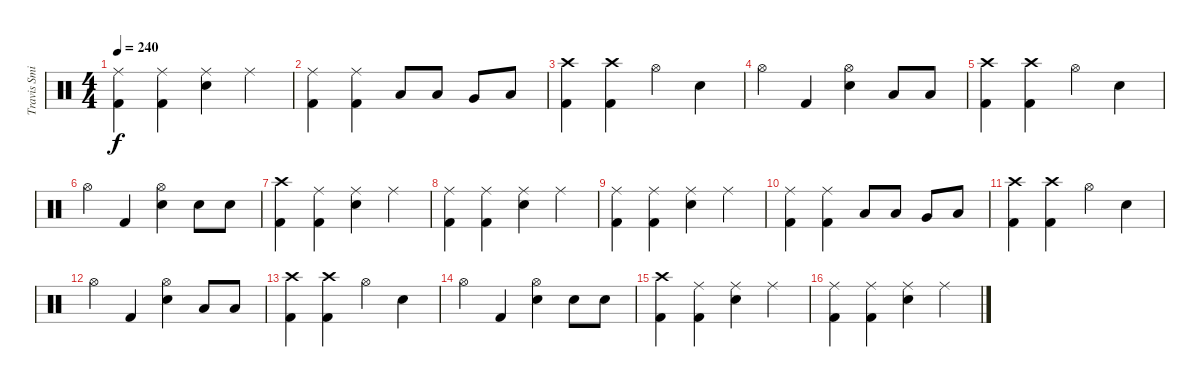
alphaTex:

\track ("Travis Smith" "Travis Smi") {instrument percussion}
\staff {score}
\articulation defaults
\ts (4 4)
\tempo 240
\clef neutral
\ks c
("Kick (hit) 2" "Ride (middle)").4{dy f} ("Kick (hit) 2" "Ride (middle)").4 ("Snare (hit) 2" "Ride (middle)").4 "Ride (middle)".4 |
("Kick (hit) 2" "Ride (middle)").4 ("Kick (hit) 2" "Ride (middle)").4 "Low Tom (hit)".8 "Low Tom (hit)".8 "Very Low Tom (hit)".8 "Low Floor Tom (hit)".8 |
("Kick (hit) 2" "Crash high (hit)").4 ("Kick (hit) 2" "Crash high (hit)").4 "Hi-Hat (open)".4 "Snare (hit) 2".4 |
"Hi-Hat (open)".4 "Kick (hit) 2".4 ("Snare (hit) 2" "Hi-Hat (open)").4 "Low Tom (hit)".8 "Low Tom (hit)".8 |
("Kick (hit) 2" "Crash high (hit)").4 ("Kick (hit) 2" "Crash high (hit)").4 "Hi-Hat (open)".4 "Snare (hit) 2".4 |
"Hi-Hat (open)".4 "Kick (hit) 2".4 ("Snare (hit) 2" "Hi-Hat (open)").4 "Snare (hit) 2".8 "Snare (hit) 2".8 |
("Kick (hit) 2" "Crash high (hit)").4 ("Kick (hit) 2" "Ride (middle)").4 ("Snare (hit) 2" "Ride (middle)").4 "Ride (middle)".4 |
("Kick (hit) 2" "Ride (middle)").4 ("Kick (hit) 2" "Ride (middle)").4 ("Snare (hit) 2" "Ride (middle)").4 "Ride (middle)".4 |
("Kick (hit) 2" "Ride (middle)").4 ("Kick (hit) 2" "Ride (middle)").4 ("Snare (hit) 2" "Ride (middle)").4 "Ride (middle)".4 |
("Kick (hit) 2" "Ride (middle)").4 ("Kick (hit) 2" "Ride (middle)").4 "Low Tom (hit)".8 "Low Tom (hit)".8 "Very Low Tom (hit)".8 "Low Floor Tom (hit)".8 |
("Kick (hit) 2" "Crash high (hit)").4 ("Kick (hit) 2" "Crash high (hit)").4 "Hi-Hat (open)".4 "Snare (hit) 2".4 |
"Hi-Hat (open)".4 "Kick (hit) 2".4 ("Snare (hit) 2" "Hi-Hat (open)").4 "Low Tom (hit)".8 "Low Tom (hit)".8 |
("Kick (hit) 2" "Crash high (hit)").4 ("Kick (hit) 2" "Crash high (hit)").4 "Hi-Hat (open)".4 "Snare (hit) 2".4 |
"Hi-Hat (open)".4 "Kick (hit) 2".4 ("Snare (hit) 2" "Hi-Hat (open)").4 "Snare (hit) 2".8 "Snare (hit) 2".8 |
("Kick (hit) 2" "Crash high (hit)").4 ("Kick (hit) 2" "Ride (middle)").4 ("Snare (hit) 2" "Ride (middle)").4 "Ride (middle)".4 |
("Kick (hit) 2" "Ride (middle)").4 ("Kick (hit) 2" "Ride (middle)").4 ("Snare (hit) 2" "Ride (middle)").4 "Ride (middle)".4
